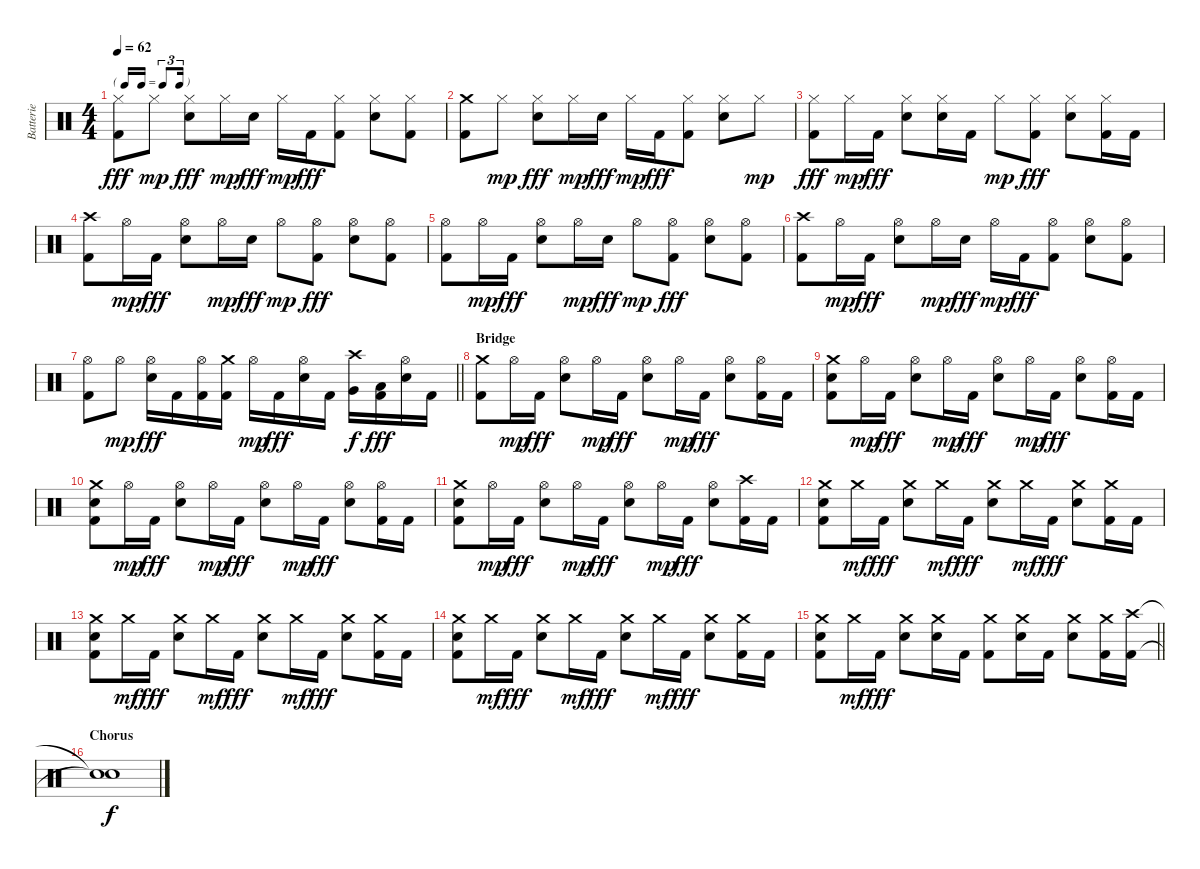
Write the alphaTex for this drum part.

\track ("Batterie" "Batterie") {instrument percussion}
\staff {score}
\articulation defaults
\ts (4 4)
\tf triplet16th
\tempo 62
\clef neutral
\ks c
("Hi-Hat (closed)" "Kick (hit) 2").8{dy fff} "Hi-Hat (closed)".8{dy mp} ("Hi-Hat (closed)" "Snare (hit) 2").8{dy fff} "Hi-Hat (closed)".16{dy mp} "Snare (hit) 2".16{dy fff} "Hi-Hat (closed)".16{dy mp} "Kick (hit) 2".16{dy fff} ("Hi-Hat (closed)" "Kick (hit) 2").8 ("Hi-Hat (closed)" "Snare (hit) 2").8 ("Hi-Hat (closed)" "Kick (hit) 2").8 |
("Crash medium (hit)" "Kick (hit) 2").8 "Hi-Hat (closed)".8{dy mp} ("Hi-Hat (closed)" "Snare (hit) 2").8{dy fff} "Hi-Hat (closed)".16{dy mp} "Snare (hit) 2".16{dy fff} "Hi-Hat (closed)".16{dy mp} "Kick (hit) 2".16{dy fff} ("Hi-Hat (closed)" "Kick (hit) 2").8 ("Hi-Hat (closed)" "Snare (hit) 2").8 "Hi-Hat (closed)".8{dy mp} |
("Hi-Hat (closed)" "Kick (hit) 2").8{dy fff} "Hi-Hat (closed)".16{dy mp} "Kick (hit) 2".16{dy fff} ("Hi-Hat (closed)" "Snare (hit) 2").8 ("Hi-Hat (closed)" "Snare (hit) 2").16 "Kick (hit) 2".16 "Hi-Hat (closed)".8{dy mp} ("Hi-Hat (closed)" "Kick (hit) 2").8{dy fff} ("Hi-Hat (closed)" "Snare (hit) 2").8 ("Hi-Hat (closed)" "Kick (hit) 2").16 "Kick (hit) 2".16 |
("Crash high (hit)" "Kick (hit) 2").8 "Hi-Hat (open)".16{dy mp} "Kick (hit) 2".16{dy fff} ("Hi-Hat (open)" "Snare (hit) 2").8 "Hi-Hat (open)".16{dy mp} "Snare (hit) 2".16{dy fff} "Hi-Hat (open)".8{dy mp} ("Hi-Hat (open)" "Kick (hit) 2").8{dy fff} ("Hi-Hat (open)" "Snare (hit) 2").8 ("Hi-Hat (open)" "Kick (hit) 2").8 |
("Hi-Hat (open)" "Kick (hit) 2").8 "Hi-Hat (open)".16{dy mp} "Kick (hit) 2".16{dy fff} ("Hi-Hat (open)" "Snare (hit) 2").8 "Hi-Hat (open)".16{dy mp} "Snare (hit) 2".16{dy fff} "Hi-Hat (open)".8{dy mp} ("Hi-Hat (open)" "Kick (hit) 2").8{dy fff} ("Hi-Hat (open)" "Snare (hit) 2").8 ("Hi-Hat (open)" "Kick (hit) 2").8 |
("Crash high (hit)" "Kick (hit) 2").8 "Hi-Hat (open)".16{dy mp} "Kick (hit) 2".16{dy fff} ("Hi-Hat (open)" "Snare (hit) 2").8 "Hi-Hat (open)".16{dy mp} "Snare (hit) 2".16{dy fff} "Hi-Hat (open)".16{dy mp} "Kick (hit) 2".16{dy fff} ("Hi-Hat (open)" "Kick (hit) 2").8 ("Hi-Hat (open)" "Snare (hit) 2").8 ("Hi-Hat (open)" "Kick (hit) 2").8 |
\barLineRight lightlight
("Hi-Hat (open)" "Kick (hit) 2").8 "Hi-Hat (open)".8{dy mp} ("Hi-Hat (open)" "Snare (hit) 2").16{dy fff} "Kick (hit) 2".16 ("Hi-Hat (open)" "Kick (hit) 2").16 ("Crash medium (hit)" "Kick (hit) 2").16 "Hi-Hat (open)".16{dy mp} "Kick (hit) 2".16{dy fff} ("Hi-Hat (open)" "Snare (hit) 2").16 "Kick (hit) 2".16 ("Crash high (hit)" "Very Low Tom (hit)").16{dy f} ("Low Floor Tom (hit)" "Kick (hit) 2").16{dy fff} ("Hi-Hat (open)" "Snare (hit) 2").16 "Kick (hit) 2".16 |
\section ("" "Bridge")
("Crash medium (hit)" "Kick (hit) 2").8 "Hi-Hat (open)".16{dy mp} "Kick (hit) 2".16{dy fff} ("Hi-Hat (open)" "Snare (hit) 2").8 "Hi-Hat (open)".16{dy mp} "Kick (hit) 2".16{dy fff} ("Hi-Hat (open)" "Snare (hit) 2").8 "Hi-Hat (open)".16{dy mp} "Kick (hit) 2".16{dy fff} ("Hi-Hat (open)" "Snare (hit) 2").8 ("Hi-Hat (open)" "Kick (hit) 2").16 "Kick (hit) 2".16 |
("Crash medium (hit)" "Snare (hit) 2" "Kick (hit) 2").8 "Hi-Hat (open)".16{dy mp} "Kick (hit) 2".16{dy fff} ("Hi-Hat (open)" "Snare (hit) 2").8 "Hi-Hat (open)".16{dy mp} "Kick (hit) 2".16{dy fff} ("Hi-Hat (open)" "Snare (hit) 2").8 "Hi-Hat (open)".16{dy mp} "Kick (hit) 2".16{dy fff} ("Hi-Hat (open)" "Snare (hit) 2").8 ("Hi-Hat (open)" "Kick (hit) 2").16 "Kick (hit) 2".16 |
("Crash medium (hit)" "Snare (hit) 2" "Kick (hit) 2").8 "Hi-Hat (open)".16{dy mp} "Kick (hit) 2".16{dy fff} ("Hi-Hat (open)" "Snare (hit) 2").8 "Hi-Hat (open)".16{dy mp} "Kick (hit) 2".16{dy fff} ("Hi-Hat (open)" "Snare (hit) 2").8 "Hi-Hat (open)".16{dy mp} "Kick (hit) 2".16{dy fff} ("Hi-Hat (open)" "Snare (hit) 2").8 ("Hi-Hat (open)" "Kick (hit) 2").16 "Kick (hit) 2".16 |
("Crash medium (hit)" "Snare (hit) 2" "Kick (hit) 2").8 "Hi-Hat (open)".16{dy mp} "Kick (hit) 2".16{dy fff} ("Hi-Hat (open)" "Snare (hit) 2").8 "Hi-Hat (open)".16{dy mp} "Kick (hit) 2".16{dy fff} ("Hi-Hat (open)" "Snare (hit) 2").8 "Hi-Hat (open)".16{dy mp} "Kick (hit) 2".16{dy fff} ("Hi-Hat (open)" "Snare (hit) 2").8 ("Crash high (hit)" "Kick (hit) 2").16 "Kick (hit) 2".16 |
("Crash medium (hit)" "Snare (hit) 2" "Kick (hit) 2").8 "Crash medium (hit)".16{dy mf} "Kick (hit) 2".16{dy fff} ("Crash medium (hit)" "Snare (hit) 2").8 "Crash medium (hit)".16{dy mf} "Kick (hit) 2".16{dy fff} ("Crash medium (hit)" "Snare (hit) 2").8 "Crash medium (hit)".16{dy mf} "Kick (hit) 2".16{dy fff} ("Crash medium (hit)" "Snare (hit) 2").8 ("Crash medium (hit)" "Kick (hit) 2").16 "Kick (hit) 2".16 |
("Crash medium (hit)" "Snare (hit) 2" "Kick (hit) 2").8 "Crash medium (hit)".16{dy mf} "Kick (hit) 2".16{dy fff} ("Crash medium (hit)" "Snare (hit) 2").8 "Crash medium (hit)".16{dy mf} "Kick (hit) 2".16{dy fff} ("Crash medium (hit)" "Snare (hit) 2").8 "Crash medium (hit)".16{dy mf} "Kick (hit) 2".16{dy fff} ("Crash medium (hit)" "Snare (hit) 2").8 ("Crash medium (hit)" "Kick (hit) 2").16 "Kick (hit) 2".16 |
("Crash medium (hit)" "Snare (hit) 2" "Kick (hit) 2").8 "Crash medium (hit)".16{dy mf} "Kick (hit) 2".16{dy fff} ("Crash medium (hit)" "Snare (hit) 2").8 "Crash medium (hit)".16{dy mf} "Kick (hit) 2".16{dy fff} ("Crash medium (hit)" "Snare (hit) 2").8 "Crash medium (hit)".16{dy mf} "Kick (hit) 2".16{dy fff} ("Crash medium (hit)" "Snare (hit) 2").8 ("Crash medium (hit)" "Kick (hit) 2").16 "Kick (hit) 2".16 |
\barLineRight lightlight
("Crash medium (hit)" "Snare (hit) 2" "Kick (hit) 2").8 "Crash medium (hit)".16{dy mf} "Kick (hit) 2".16{dy fff} ("Crash medium (hit)" "Snare (hit) 2").8 ("Crash medium (hit)" "Snare (hit) 2").16 "Kick (hit) 2".16 ("Crash medium (hit)" "Kick (hit) 2").8 ("Crash medium (hit)" "Snare (hit) 2").16 "Kick (hit) 2".16 ("Crash medium (hit)" "Snare (hit) 2").8 ("Crash medium (hit)" "Kick (hit) 2").16 ("Crash high (hit)" "Kick (hit) 2").16 |
\section ("" "Chorus")
("Snare (hit)"{t} "Snare (hit)"{t}).1{dy f}
